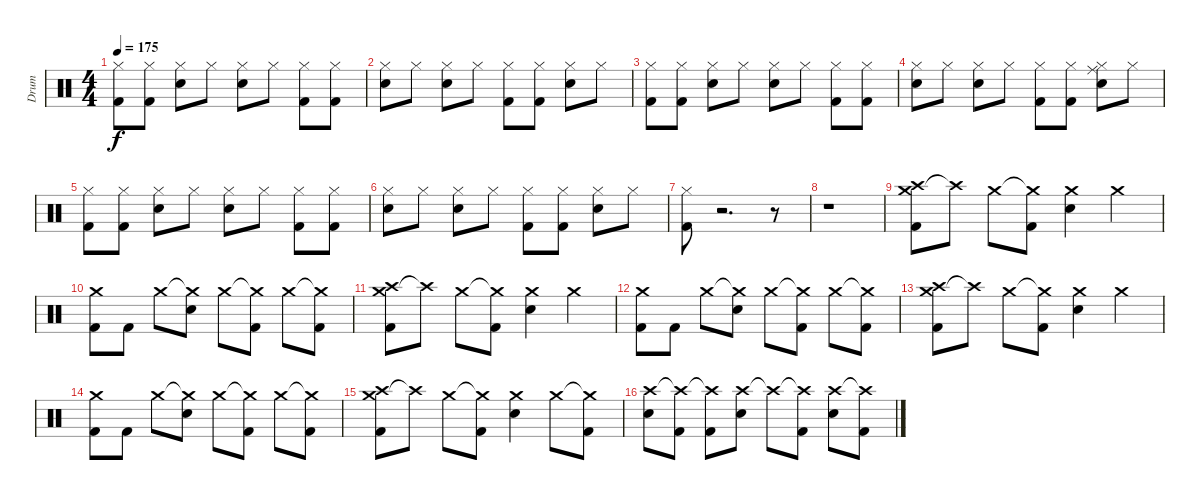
\track ("Drum" "Drum") {instrument percussion}
\staff {score}
\articulation defaults
\ts (4 4)
\tempo 175
\clef neutral
\ks c
("Hi-Hat (closed)" "Kick (hit) 2").8{dy f} ("Hi-Hat (closed)" "Kick (hit) 2").8 ("Hi-Hat (closed)" "Snare (hit) 2").8 "Hi-Hat (closed)".8 ("Hi-Hat (closed)" "Snare (hit) 2").8 "Hi-Hat (closed)".8 ("Hi-Hat (closed)" "Kick (hit) 2").8 ("Hi-Hat (closed)" "Kick (hit) 2").8 |
("Hi-Hat (closed)" "Snare (hit) 2").8 "Hi-Hat (closed)".8 ("Hi-Hat (closed)" "Snare (hit) 2").8 "Hi-Hat (closed)".8 ("Hi-Hat (closed)" "Kick (hit) 2").8 ("Hi-Hat (closed)" "Kick (hit) 2").8 ("Hi-Hat (closed)" "Snare (hit) 2").8 "Hi-Hat (closed)".8 |
("Hi-Hat (closed)" "Kick (hit) 2").8 ("Hi-Hat (closed)" "Kick (hit) 2").8 ("Hi-Hat (closed)" "Snare (hit) 2").8 "Hi-Hat (closed)".8 ("Hi-Hat (closed)" "Snare (hit) 2").8 "Hi-Hat (closed)".8 ("Hi-Hat (closed)" "Kick (hit) 2").8 ("Hi-Hat (closed)" "Kick (hit) 2").8 |
("Hi-Hat (closed)" "Snare (hit) 2").8 "Hi-Hat (closed)".8 ("Hi-Hat (closed)" "Snare (hit) 2").8 "Hi-Hat (closed)".8 ("Hi-Hat (closed)" "Kick (hit) 2").8 ("Hi-Hat (closed)" "Kick (hit) 2").8 ("Hi-Hat (closed)" "Ride (middle)" "Snare (hit) 2").8 "Hi-Hat (closed)".8 |
("Hi-Hat (closed)" "Kick (hit) 2").8 ("Hi-Hat (closed)" "Kick (hit) 2").8 ("Hi-Hat (closed)" "Snare (hit) 2").8 "Hi-Hat (closed)".8 ("Hi-Hat (closed)" "Snare (hit) 2").8 "Hi-Hat (closed)".8 ("Hi-Hat (closed)" "Kick (hit) 2").8 ("Hi-Hat (closed)" "Kick (hit) 2").8 |
("Hi-Hat (closed)" "Snare (hit) 2").8 "Hi-Hat (closed)".8 ("Hi-Hat (closed)" "Snare (hit) 2").8 "Hi-Hat (closed)".8 ("Hi-Hat (closed)" "Kick (hit) 2").8 ("Hi-Hat (closed)" "Kick (hit) 2").8 ("Hi-Hat (closed)" "Snare (hit) 2").8 "Hi-Hat (closed)".8 |
("Hi-Hat (closed)" "Kick (hit) 2").8 r.2{d} r.8 |
r.1 |
("Crash medium (hit)" "Crash high (hit)" "Kick (hit) 2").8 "Crash high (hit)"{t}.8 "Crash medium (hit)".8 ("Crash medium (hit)"{t} "Kick (hit) 2").8 ("Crash medium (hit)" "Snare (hit) 2").4 "Crash medium (hit)".4 |
("Crash medium (hit)" "Kick (hit) 2").8 "Kick (hit) 2".8 "Crash medium (hit)".8 ("Crash medium (hit)"{t} "Snare (hit) 2").8 "Crash medium (hit)".8 ("Crash medium (hit)"{t} "Kick (hit) 2").8 "Crash medium (hit)".8 ("Crash medium (hit)"{t} "Kick (hit) 2").8 |
("Crash medium (hit)" "Crash high (hit)" "Kick (hit) 2").8 "Crash high (hit)"{t}.8 "Crash medium (hit)".8 ("Crash medium (hit)"{t} "Kick (hit) 2").8 ("Crash medium (hit)" "Snare (hit) 2").4 "Crash medium (hit)".4 |
("Crash medium (hit)" "Kick (hit) 2").8 "Kick (hit) 2".8 "Crash medium (hit)".8 ("Crash medium (hit)"{t} "Snare (hit) 2").8 "Crash medium (hit)".8 ("Crash medium (hit)"{t} "Kick (hit) 2").8 "Crash medium (hit)".8 ("Crash medium (hit)"{t} "Kick (hit) 2").8 |
("Crash medium (hit)" "Crash high (hit)" "Kick (hit) 2").8 "Crash high (hit)"{t}.8 "Crash medium (hit)".8 ("Crash medium (hit)"{t} "Kick (hit) 2").8 ("Crash medium (hit)" "Snare (hit) 2").4 "Crash medium (hit)".4 |
("Crash medium (hit)" "Kick (hit) 2").8 "Kick (hit) 2".8 "Crash medium (hit)".8 ("Crash medium (hit)"{t} "Snare (hit) 2").8 "Crash medium (hit)".8 ("Crash medium (hit)"{t} "Kick (hit) 2").8 "Crash medium (hit)".8 ("Crash medium (hit)"{t} "Kick (hit) 2").8 |
("Crash medium (hit)" "Crash high (hit)" "Kick (hit) 2").8 "Crash high (hit)"{t}.8 "Crash medium (hit)".8 ("Crash medium (hit)"{t} "Kick (hit) 2").8 ("Crash medium (hit)" "Snare (hit) 2").4 "Crash medium (hit)".8 ("Crash medium (hit)"{t} "Kick (hit) 2").8 |
("Crash high (hit)" "Snare (hit) 2").8 ("Crash high (hit)"{t} "Kick (hit) 2").8 ("Crash high (hit)"{t} "Kick (hit) 2").8 ("Crash high (hit)" "Electric Snare (hit)").8 "Crash high (hit)"{t}.8 ("Crash high (hit)"{t} "Kick (hit) 2").8 ("Crash high (hit)" "Snare (hit) 2").8 ("Crash high (hit)"{t} "Kick (hit) 2").8
